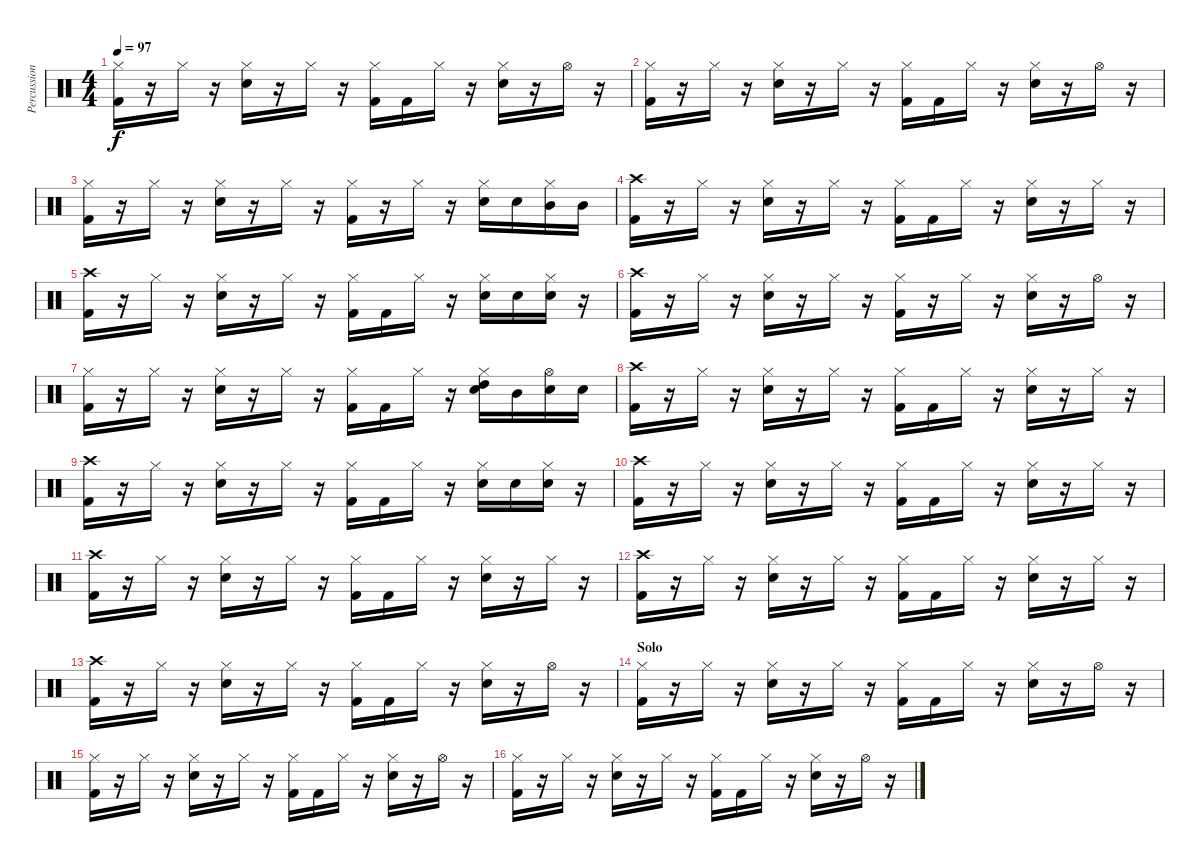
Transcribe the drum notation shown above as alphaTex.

\track ("Percussion" "Percussion") {instrument percussion}
\staff {score}
\articulation defaults
\ts (4 4)
\tempo 97
\clef neutral
\ks c
("Hi-Hat (closed)" "Kick (hit) 2").16{dy f} r.16 "Hi-Hat (closed)".16 r.16 ("Hi-Hat (closed)" "Snare (hit) 2").16 r.16 "Hi-Hat (closed)".16 r.16 ("Hi-Hat (closed)" "Kick (hit) 2").16 "Kick (hit) 2".16 "Hi-Hat (closed)".16 r.16 ("Hi-Hat (closed)" "Snare (hit) 2").16 r.16 "Hi-Hat (open)".16 r.16 |
("Hi-Hat (closed)" "Kick (hit) 2").16 r.16 "Hi-Hat (closed)".16 r.16 ("Hi-Hat (closed)" "Snare (hit) 2").16 r.16 "Hi-Hat (closed)".16 r.16 ("Hi-Hat (closed)" "Kick (hit) 2").16 "Kick (hit) 2".16 "Hi-Hat (closed)".16 r.16 ("Hi-Hat (closed)" "Snare (hit) 2").16 r.16 "Hi-Hat (open)".16 r.16 |
("Hi-Hat (closed)" "Kick (hit) 2").16 r.16 "Hi-Hat (closed)".16 r.16 ("Hi-Hat (closed)" "Snare (hit) 2").16 r.16 "Hi-Hat (closed)".16 r.16 ("Hi-Hat (closed)" "Kick (hit) 2").16 r.16 "Hi-Hat (closed)".16 r.16 ("Hi-Hat (closed)" "Snare (hit) 2").16 "Snare (hit) 2".16 ("Hi-Hat (closed)" "Mid Tom (hit)").16 "Mid Tom (hit)".16 |
("Crash high (hit)" "Kick (hit) 2").16 r.16 "Hi-Hat (closed)".16 r.16 ("Hi-Hat (closed)" "Snare (hit) 2").16 r.16 "Hi-Hat (closed)".16 r.16 ("Hi-Hat (closed)" "Kick (hit) 2").16 "Kick (hit) 2".16 "Hi-Hat (closed)".16 r.16 ("Hi-Hat (closed)" "Snare (hit) 2").16 r.16 "Hi-Hat (closed)".16 r.16 |
("Crash high (hit)" "Kick (hit) 2").16 r.16 "Hi-Hat (closed)".16 r.16 ("Hi-Hat (closed)" "Snare (hit) 2").16 r.16 "Hi-Hat (closed)".16 r.16 ("Hi-Hat (closed)" "Kick (hit) 2").16 "Kick (hit) 2".16 "Hi-Hat (closed)".16 r.16 ("Hi-Hat (closed)" "Snare (hit) 2").16 "Snare (hit) 2".16 ("Hi-Hat (closed)" "Snare (hit) 2").16 r.16 |
("Crash high (hit)" "Kick (hit) 2").16 r.16 "Hi-Hat (closed)".16 r.16 ("Hi-Hat (closed)" "Snare (hit) 2").16 r.16 "Hi-Hat (closed)".16 r.16 ("Hi-Hat (closed)" "Kick (hit) 2").16 r.16 "Hi-Hat (closed)".16 r.16 ("Hi-Hat (closed)" "Snare (hit) 2").16 r.16 "Hi-Hat (open)".16 r.16 |
("Hi-Hat (closed)" "Kick (hit) 2").16 r.16 "Hi-Hat (closed)".16 r.16 ("Hi-Hat (closed)" "Snare (hit) 2").16 r.16 "Hi-Hat (closed)".16 r.16 ("Hi-Hat (closed)" "Kick (hit) 2").16 "Kick (hit) 2".16 "Hi-Hat (closed)".16 r.16 ("Hi-Hat (closed)" "Snare (hit) 2" "High Tom (hit)").16 "Mid Tom (hit)".16 ("Hi-Hat (open)" "Snare (hit) 2").16 "Snare (hit) 2".16 |
("Crash high (hit)" "Kick (hit) 2").16 r.16 "Hi-Hat (closed)".16 r.16 ("Hi-Hat (closed)" "Snare (hit) 2").16 r.16 "Hi-Hat (closed)".16 r.16 ("Hi-Hat (closed)" "Kick (hit) 2").16 "Kick (hit) 2".16 "Hi-Hat (closed)".16 r.16 ("Hi-Hat (closed)" "Snare (hit) 2").16 r.16 "Hi-Hat (closed)".16 r.16 |
("Crash high (hit)" "Kick (hit) 2").16 r.16 "Hi-Hat (closed)".16 r.16 ("Hi-Hat (closed)" "Snare (hit) 2").16 r.16 "Hi-Hat (closed)".16 r.16 ("Hi-Hat (closed)" "Kick (hit) 2").16 "Kick (hit) 2".16 "Hi-Hat (closed)".16 r.16 ("Hi-Hat (closed)" "Snare (hit) 2").16 "Snare (hit) 2".16 ("Hi-Hat (closed)" "Snare (hit) 2").16 r.16 |
("Crash high (hit)" "Kick (hit) 2").16 r.16 "Hi-Hat (closed)".16 r.16 ("Hi-Hat (closed)" "Snare (hit) 2").16 r.16 "Hi-Hat (closed)".16 r.16 ("Hi-Hat (closed)" "Kick (hit) 2").16 "Kick (hit) 2".16 "Hi-Hat (closed)".16 r.16 ("Hi-Hat (closed)" "Snare (hit) 2").16 r.16 "Hi-Hat (closed)".16 r.16 |
("Crash high (hit)" "Kick (hit) 2").16 r.16 "Hi-Hat (closed)".16 r.16 ("Hi-Hat (closed)" "Snare (hit) 2").16 r.16 "Hi-Hat (closed)".16 r.16 ("Hi-Hat (closed)" "Kick (hit) 2").16 "Kick (hit) 2".16 "Hi-Hat (closed)".16 r.16 ("Hi-Hat (closed)" "Snare (hit) 2").16 r.16 "Hi-Hat (closed)".16 r.16 |
("Crash high (hit)" "Kick (hit) 2").16 r.16 "Hi-Hat (closed)".16 r.16 ("Hi-Hat (closed)" "Snare (hit) 2").16 r.16 "Hi-Hat (closed)".16 r.16 ("Hi-Hat (closed)" "Kick (hit) 2").16 "Kick (hit) 2".16 "Hi-Hat (closed)".16 r.16 ("Hi-Hat (closed)" "Snare (hit) 2").16 r.16 "Hi-Hat (closed)".16 r.16 |
("Crash high (hit)" "Kick (hit) 2").16 r.16 "Hi-Hat (closed)".16 r.16 ("Hi-Hat (closed)" "Snare (hit) 2").16 r.16 "Hi-Hat (closed)".16 r.16 ("Hi-Hat (closed)" "Kick (hit) 2").16 "Kick (hit) 2".16 "Hi-Hat (closed)".16 r.16 ("Hi-Hat (closed)" "Snare (hit) 2").16 r.16 "Hi-Hat (open)".16 r.16 |
\section ("" "Solo")
("Hi-Hat (closed)" "Kick (hit) 2").16 r.16 "Hi-Hat (closed)".16 r.16 ("Hi-Hat (closed)" "Snare (hit) 2").16 r.16 "Hi-Hat (closed)".16 r.16 ("Hi-Hat (closed)" "Kick (hit) 2").16 "Kick (hit) 2".16 "Hi-Hat (closed)".16 r.16 ("Hi-Hat (closed)" "Snare (hit) 2").16 r.16 "Hi-Hat (open)".16 r.16 |
("Hi-Hat (closed)" "Kick (hit) 2").16 r.16 "Hi-Hat (closed)".16 r.16 ("Hi-Hat (closed)" "Snare (hit) 2").16 r.16 "Hi-Hat (closed)".16 r.16 ("Hi-Hat (closed)" "Kick (hit) 2").16 "Kick (hit) 2".16 "Hi-Hat (closed)".16 r.16 ("Hi-Hat (closed)" "Snare (hit) 2").16 r.16 "Hi-Hat (open)".16 r.16 |
("Hi-Hat (closed)" "Kick (hit) 2").16 r.16 "Hi-Hat (closed)".16 r.16 ("Hi-Hat (closed)" "Snare (hit) 2").16 r.16 "Hi-Hat (closed)".16 r.16 ("Hi-Hat (closed)" "Kick (hit) 2").16 "Kick (hit) 2".16 "Hi-Hat (closed)".16 r.16 ("Hi-Hat (closed)" "Snare (hit) 2").16 r.16 "Hi-Hat (open)".16 r.16
